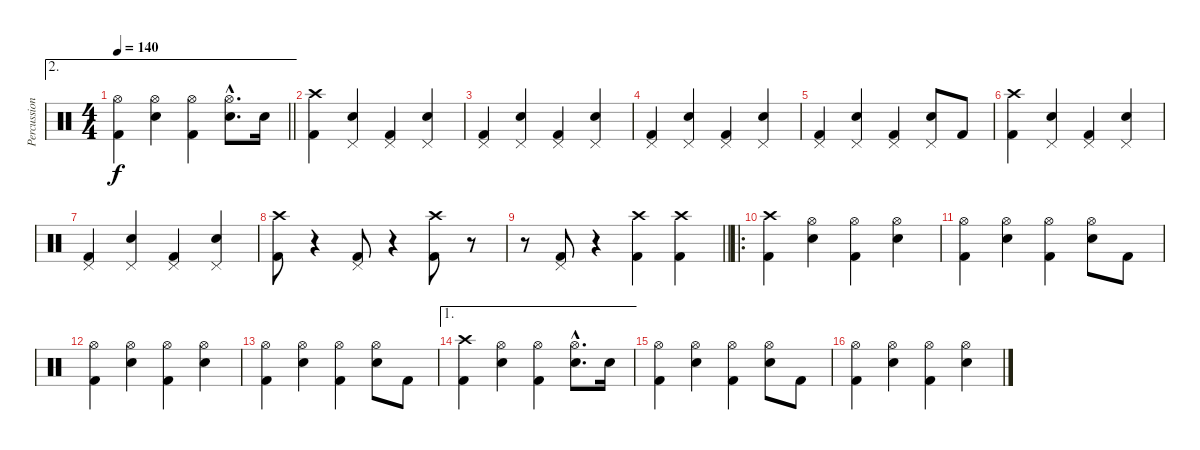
\track ("Percussion" "Percussion") {instrument percussion}
\staff {score}
\articulation defaults
\ae 2
\ts (4 4)
\tempo 140
\clef neutral
\barLineRight lightlight
\ks c
("Hi-Hat (open)" "Kick (hit) 2").4{dy f} ("Hi-Hat (open)" "Snare (hit) 2").4 ("Hi-Hat (open)" "Kick (hit) 2").4 ("Hi-Hat (open)"{hac} "Snare (hit) 2"{hac}).8{d} "Snare (hit) 2".16 |
\section ("" "")
("Crash high (hit)" "Kick (hit) 2").4 ("Pedal Hi-Hat (hit)" "Snare (hit) 2").4 ("Pedal Hi-Hat (hit)" "Kick (hit) 2").4 ("Pedal Hi-Hat (hit)" "Snare (hit) 2").4 |
("Pedal Hi-Hat (hit)" "Kick (hit) 2").4 ("Pedal Hi-Hat (hit)" "Snare (hit) 2").4 ("Pedal Hi-Hat (hit)" "Kick (hit) 2").4 ("Pedal Hi-Hat (hit)" "Snare (hit) 2").4 |
("Pedal Hi-Hat (hit)" "Kick (hit) 2").4 ("Pedal Hi-Hat (hit)" "Snare (hit) 2").4 ("Pedal Hi-Hat (hit)" "Kick (hit) 2").4 ("Pedal Hi-Hat (hit)" "Snare (hit) 2").4 |
("Pedal Hi-Hat (hit)" "Kick (hit) 2").4 ("Pedal Hi-Hat (hit)" "Snare (hit) 2").4 ("Pedal Hi-Hat (hit)" "Kick (hit) 2").4 ("Pedal Hi-Hat (hit)" "Snare (hit) 2").8 "Kick (hit) 2".8 |
("Crash high (hit)" "Kick (hit) 2").4 ("Pedal Hi-Hat (hit)" "Snare (hit) 2").4 ("Pedal Hi-Hat (hit)" "Kick (hit) 2").4 ("Pedal Hi-Hat (hit)" "Snare (hit) 2").4 |
("Pedal Hi-Hat (hit)" "Kick (hit) 2").4 ("Pedal Hi-Hat (hit)" "Snare (hit) 2").4 ("Pedal Hi-Hat (hit)" "Kick (hit) 2").4 ("Pedal Hi-Hat (hit)" "Snare (hit) 2").4 |
("Crash high (hit)" "Kick (hit) 2").8 r.4 ("Pedal Hi-Hat (hit)" "Kick (hit) 2").8 r.4 ("Crash high (hit)" "Kick (hit) 2").8 r.8 |
\barLineRight lightlight
r.8 ("Pedal Hi-Hat (hit)" "Kick (hit) 2").8 r.4 ("Crash high (hit)" "Kick (hit) 2").4 ("Crash high (hit)" "Kick (hit) 2").4 |
\ro
\section ("" "")
("Crash high (hit)" "Kick (hit) 2").4 ("Hi-Hat (open)" "Snare (hit) 2").4 ("Hi-Hat (open)" "Kick (hit) 2").4 ("Hi-Hat (open)" "Snare (hit) 2").4 |
("Hi-Hat (open)" "Kick (hit) 2").4 ("Hi-Hat (open)" "Snare (hit) 2").4 ("Hi-Hat (open)" "Kick (hit) 2").4 ("Hi-Hat (open)" "Snare (hit) 2").8 "Kick (hit) 2".8 |
("Hi-Hat (open)" "Kick (hit) 2").4 ("Hi-Hat (open)" "Snare (hit) 2").4 ("Hi-Hat (open)" "Kick (hit) 2").4 ("Hi-Hat (open)" "Snare (hit) 2").4 |
("Hi-Hat (open)" "Kick (hit) 2").4 ("Hi-Hat (open)" "Snare (hit) 2").4 ("Hi-Hat (open)" "Kick (hit) 2").4 ("Hi-Hat (open)" "Snare (hit) 2").8 "Kick (hit) 2".8 |
\ae 1
("Crash high (hit)" "Kick (hit) 2").4 ("Hi-Hat (open)" "Snare (hit) 2").4 ("Hi-Hat (open)" "Kick (hit) 2").4 ("Hi-Hat (open)"{hac} "Snare (hit) 2"{hac}).8{d} "Snare (hit) 2".16 |
("Hi-Hat (open)" "Kick (hit) 2").4 ("Hi-Hat (open)" "Snare (hit) 2").4 ("Hi-Hat (open)" "Kick (hit) 2").4 ("Hi-Hat (open)" "Snare (hit) 2").8 "Kick (hit) 2".8 |
("Hi-Hat (open)" "Kick (hit) 2").4 ("Hi-Hat (open)" "Snare (hit) 2").4 ("Hi-Hat (open)" "Kick (hit) 2").4 ("Hi-Hat (open)" "Snare (hit) 2").4
